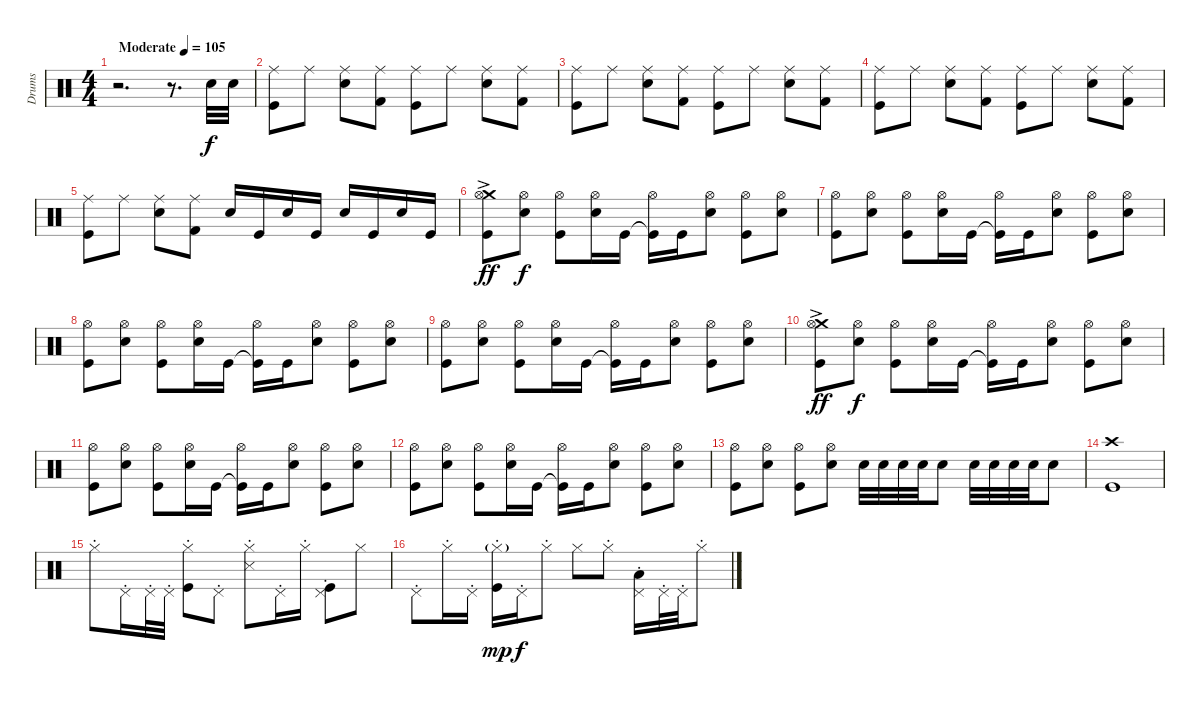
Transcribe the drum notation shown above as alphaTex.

\track ("Drums" "Drums") {instrument percussion}
\staff {score}
\articulation defaults
\ts (4 4)
\tempo (105 "Moderate")
\clef neutral
\ks c
r.2{d dy f} r.8{d} "Electric Snare (hit)".32 "Electric Snare (hit)".32 |
("Kick (hit)" "Ride (middle)").8 "Ride (middle)".8 ("Electric Snare (hit)" "Ride (middle)").8 ("Kick (hit) 2" "Ride (middle)").8 ("Kick (hit)" "Ride (middle)").8 "Ride (middle)".8 ("Electric Snare (hit)" "Ride (middle)").8 ("Kick (hit) 2" "Ride (middle)").8 |
("Kick (hit)" "Ride (middle)").8 "Ride (middle)".8 ("Electric Snare (hit)" "Ride (middle)").8 ("Kick (hit) 2" "Ride (middle)").8 ("Kick (hit)" "Ride (middle)").8 "Ride (middle)".8 ("Electric Snare (hit)" "Ride (middle)").8 ("Kick (hit) 2" "Ride (middle)").8 |
("Kick (hit)" "Ride (middle)").8 "Ride (middle)".8 ("Electric Snare (hit)" "Ride (middle)").8 ("Kick (hit) 2" "Ride (middle)").8 ("Kick (hit)" "Ride (middle)").8 "Ride (middle)".8 ("Electric Snare (hit)" "Ride (middle)").8 ("Kick (hit) 2" "Ride (middle)").8 |
("Kick (hit)" "Ride (middle)").8 "Ride (middle)".8 ("Electric Snare (hit)" "Ride (middle)").8 ("Kick (hit) 2" "Ride (middle)").8 "Electric Snare (hit)".16 "Kick (hit)".16 "Electric Snare (hit)".16 "Kick (hit)".16 "Electric Snare (hit)".16 "Kick (hit)".16 "Electric Snare (hit)".16 "Kick (hit)".16 |
("Kick (hit)" "Crash medium (hit)"{ac} "Hi-Hat (open)").8{dy ff} ("Electric Snare (hit)" "Hi-Hat (open)").8{dy f} ("Kick (hit)" "Hi-Hat (open)").8 ("Electric Snare (hit)" "Hi-Hat (open)").16 "Kick (hit)".16 ("Kick (hit)"{t} "Hi-Hat (open)").16 "Kick (hit)".16 ("Electric Snare (hit)" "Hi-Hat (open)").8 ("Kick (hit)" "Hi-Hat (open)").8 ("Electric Snare (hit)" "Hi-Hat (open)").8 |
("Kick (hit)" "Hi-Hat (open)").8 ("Electric Snare (hit)" "Hi-Hat (open)").8 ("Kick (hit)" "Hi-Hat (open)").8 ("Electric Snare (hit)" "Hi-Hat (open)").16 "Kick (hit)".16 ("Kick (hit)"{t} "Hi-Hat (open)").16 "Kick (hit)".16 ("Electric Snare (hit)" "Hi-Hat (open)").8 ("Kick (hit)" "Hi-Hat (open)").8 ("Electric Snare (hit)" "Hi-Hat (open)").8 |
("Kick (hit)" "Hi-Hat (open)").8 ("Electric Snare (hit)" "Hi-Hat (open)").8 ("Kick (hit)" "Hi-Hat (open)").8 ("Electric Snare (hit)" "Hi-Hat (open)").16 "Kick (hit)".16 ("Kick (hit)"{t} "Hi-Hat (open)").16 "Kick (hit)".16 ("Electric Snare (hit)" "Hi-Hat (open)").8 ("Kick (hit)" "Hi-Hat (open)").8 ("Electric Snare (hit)" "Hi-Hat (open)").8 |
("Kick (hit)" "Hi-Hat (open)").8 ("Electric Snare (hit)" "Hi-Hat (open)").8 ("Kick (hit)" "Hi-Hat (open)").8 ("Electric Snare (hit)" "Hi-Hat (open)").16 "Kick (hit)".16 ("Kick (hit)"{t} "Hi-Hat (open)").16 "Kick (hit)".16 ("Electric Snare (hit)" "Hi-Hat (open)").8 ("Kick (hit)" "Hi-Hat (open)").8 ("Electric Snare (hit)" "Hi-Hat (open)").8 |
("Kick (hit)" "Crash medium (hit)"{ac} "Hi-Hat (open)").8{dy ff} ("Electric Snare (hit)" "Hi-Hat (open)").8{dy f} ("Kick (hit)" "Hi-Hat (open)").8 ("Electric Snare (hit)" "Hi-Hat (open)").16 "Kick (hit)".16 ("Kick (hit)"{t} "Hi-Hat (open)").16 "Kick (hit)".16 ("Electric Snare (hit)" "Hi-Hat (open)").8 ("Kick (hit)" "Hi-Hat (open)").8 ("Electric Snare (hit)" "Hi-Hat (open)").8 |
("Kick (hit)" "Hi-Hat (open)").8 ("Electric Snare (hit)" "Hi-Hat (open)").8 ("Kick (hit)" "Hi-Hat (open)").8 ("Electric Snare (hit)" "Hi-Hat (open)").16 "Kick (hit)".16 ("Kick (hit)"{t} "Hi-Hat (open)").16 "Kick (hit)".16 ("Electric Snare (hit)" "Hi-Hat (open)").8 ("Kick (hit)" "Hi-Hat (open)").8 ("Electric Snare (hit)" "Hi-Hat (open)").8 |
("Kick (hit)" "Hi-Hat (open)").8 ("Electric Snare (hit)" "Hi-Hat (open)").8 ("Kick (hit)" "Hi-Hat (open)").8 ("Electric Snare (hit)" "Hi-Hat (open)").16 "Kick (hit)".16 ("Kick (hit)"{t} "Hi-Hat (open)").16 "Kick (hit)".16 ("Electric Snare (hit)" "Hi-Hat (open)").8 ("Kick (hit)" "Hi-Hat (open)").8 ("Electric Snare (hit)" "Hi-Hat (open)").8 |
("Kick (hit)" "Hi-Hat (open)").8 ("Electric Snare (hit)" "Hi-Hat (open)").8 ("Kick (hit)" "Hi-Hat (open)").8 ("Electric Snare (hit)" "Hi-Hat (open)").8 "Electric Snare (hit)".32 "Electric Snare (hit)".32 "Electric Snare (hit)".32 "Electric Snare (hit)".32 "Electric Snare (hit)".8 "Electric Snare (hit)".32 "Electric Snare (hit)".32 "Electric Snare (hit)".32 "Electric Snare (hit)".32 "Electric Snare (hit)".8 |
("Kick (hit)" "Crash high (hit)").1 |
"Hi-Hat (closed)"{st}.8 "Pedal Hi-Hat (hit)"{st}.16 "Pedal Hi-Hat (hit)"{st}.32 "Pedal Hi-Hat (hit)"{st}.32 ("Hi-Hat (closed)"{st} "Kick (hit)"{st}).8 "Pedal Hi-Hat (hit)"{st}.8 ("Hi-Hat (closed)"{st} "Snare (side stick) 3"{st}).8 "Pedal Hi-Hat (hit)"{st}.16 "Hi-Hat (closed)"{st}.16 ("Pedal Hi-Hat (hit)"{st} "Kick (hit)").8 "Hi-Hat (closed)".8 |
"Pedal Hi-Hat (hit)"{st}.8 "Hi-Hat (closed)"{st}.16 "Pedal Hi-Hat (hit)"{st}.16 ("Hi-Hat (closed)"{g st} "Kick (hit)").16{dy mp} "Pedal Hi-Hat (hit)"{st}.16{dy f} "Hi-Hat (closed)"{st}.8 "Hi-Hat (closed)".8 "Hi-Hat (closed)"{st}.8 ("Pedal Hi-Hat (hit)"{st} "Low Tom (hit)").16 "Pedal Hi-Hat (hit)"{st}.32 "Pedal Hi-Hat (hit)"{st}.32 "Hi-Hat (closed)"{st}.8
